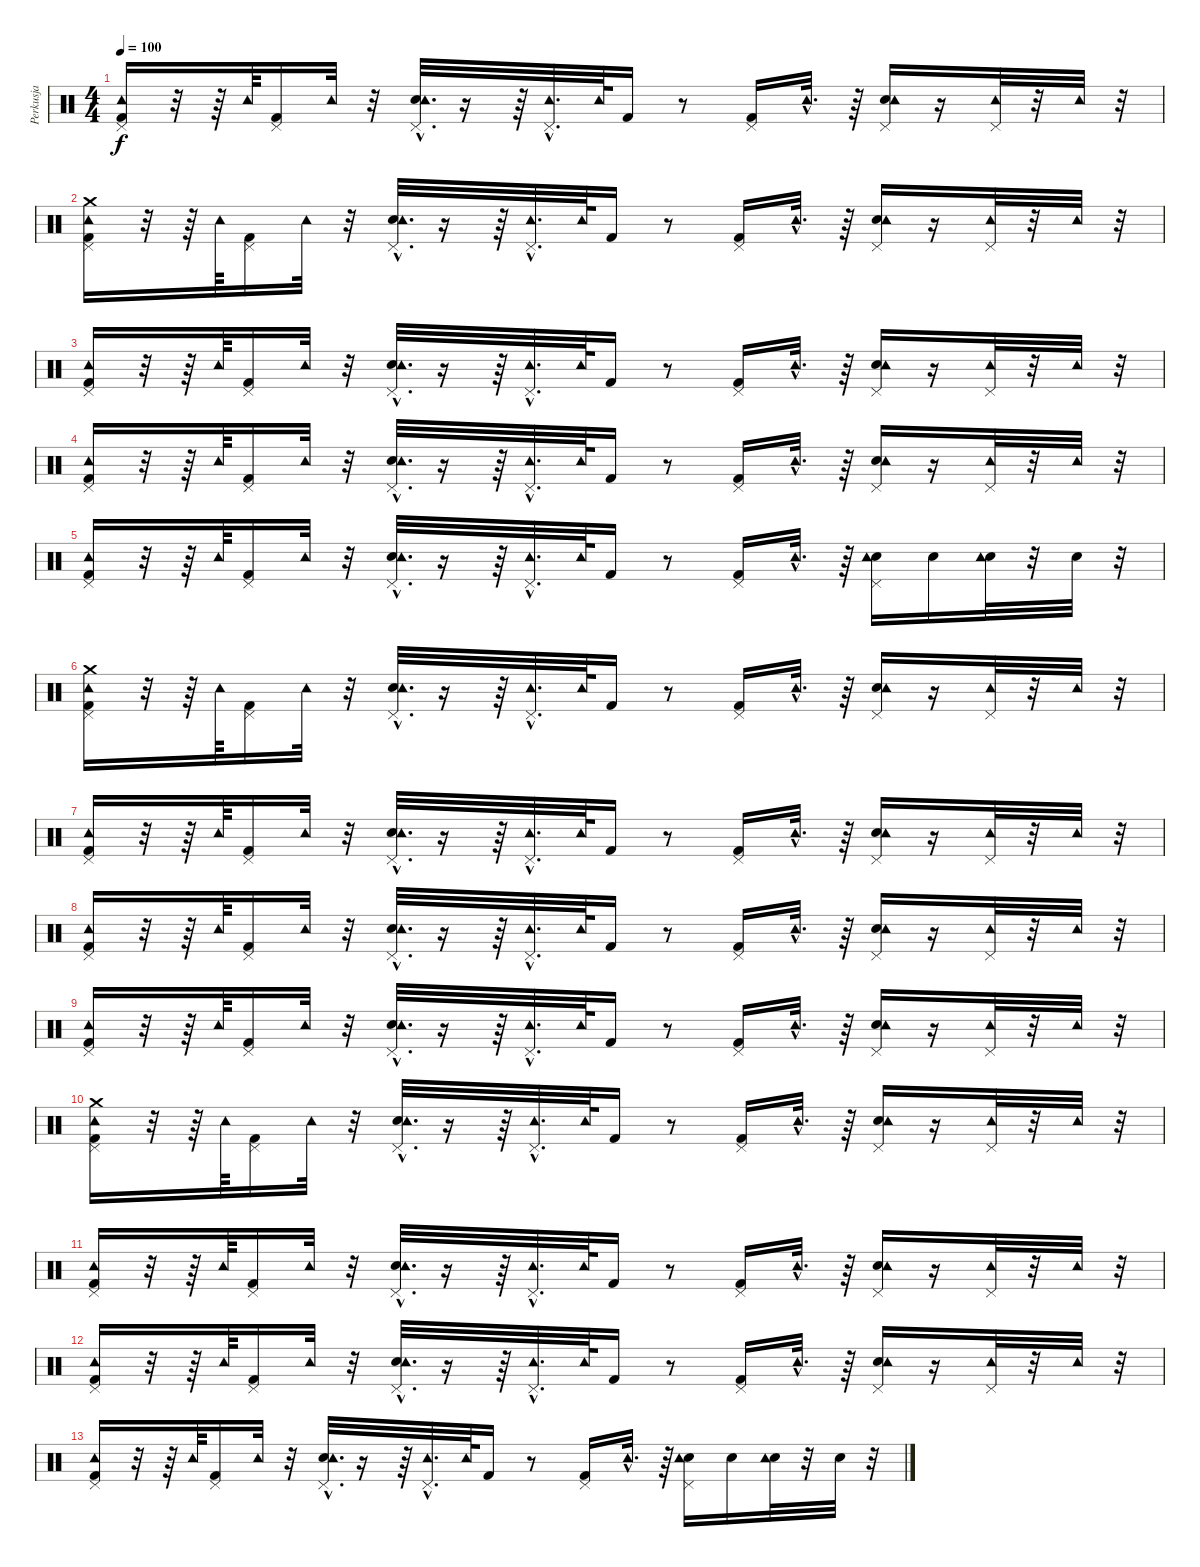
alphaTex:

\track ("Perkusja" "Perkusja") {instrument percussion}
\staff {score}
\articulation defaults
\ts (4 4)
\tempo 100
\clef neutral
\ks c
("Tambourine (hit)" "Pedal Hi-Hat (hit)" "Kick (hit) 2").16{dy f} r.32 r.64 "Tambourine (hit)".64 ("Kick (hit) 2" "Pedal Hi-Hat (hit)").16 "Tambourine (hit)".32 r.32 ("Electric Snare (hit)"{hac} "Pedal Hi-Hat (hit)"{hac} "Tambourine (hit)"{hac}).32{d} r.16 r.64 ("Pedal Hi-Hat (hit)"{hac} "Tambourine (hit)"{hac}).32{d} "Tambourine (hit)".64 "Kick (hit) 2".16 r.8 ("Kick (hit) 2" "Pedal Hi-Hat (hit)").16 "Tambourine (hit)"{hac}.32{d} r.64 ("Electric Snare (hit)" "Pedal Hi-Hat (hit)" "Tambourine (hit)").16 r.16 ("Pedal Hi-Hat (hit)" "Tambourine (hit)").32 r.32 "Tambourine (hit)".32 r.32 |
("Tambourine (hit)" "Pedal Hi-Hat (hit)" "Kick (hit) 2" "Crash medium (hit)").16 r.32 r.64 "Tambourine (hit)".64 ("Kick (hit) 2" "Pedal Hi-Hat (hit)").16 "Tambourine (hit)".32 r.32 ("Electric Snare (hit)"{hac} "Pedal Hi-Hat (hit)"{hac} "Tambourine (hit)"{hac}).32{d} r.16 r.64 ("Pedal Hi-Hat (hit)"{hac} "Tambourine (hit)"{hac}).32{d} "Tambourine (hit)".64 "Kick (hit) 2".16 r.8 ("Kick (hit) 2" "Pedal Hi-Hat (hit)").16 "Tambourine (hit)"{hac}.32{d} r.64 ("Electric Snare (hit)" "Pedal Hi-Hat (hit)" "Tambourine (hit)").16 r.16 ("Pedal Hi-Hat (hit)" "Tambourine (hit)").32 r.32 "Tambourine (hit)".32 r.32 |
("Tambourine (hit)" "Pedal Hi-Hat (hit)" "Kick (hit) 2").16 r.32 r.64 "Tambourine (hit)".64 ("Kick (hit) 2" "Pedal Hi-Hat (hit)").16 "Tambourine (hit)".32 r.32 ("Electric Snare (hit)"{hac} "Pedal Hi-Hat (hit)"{hac} "Tambourine (hit)"{hac}).32{d} r.16 r.64 ("Pedal Hi-Hat (hit)"{hac} "Tambourine (hit)"{hac}).32{d} "Tambourine (hit)".64 "Kick (hit) 2".16 r.8 ("Kick (hit) 2" "Pedal Hi-Hat (hit)").16 "Tambourine (hit)"{hac}.32{d} r.64 ("Electric Snare (hit)" "Pedal Hi-Hat (hit)" "Tambourine (hit)").16 r.16 ("Pedal Hi-Hat (hit)" "Tambourine (hit)").32 r.32 "Tambourine (hit)".32 r.32 |
("Tambourine (hit)" "Pedal Hi-Hat (hit)" "Kick (hit) 2").16 r.32 r.64 "Tambourine (hit)".64 ("Kick (hit) 2" "Pedal Hi-Hat (hit)").16 "Tambourine (hit)".32 r.32 ("Electric Snare (hit)"{hac} "Pedal Hi-Hat (hit)"{hac} "Tambourine (hit)"{hac}).32{d} r.16 r.64 ("Pedal Hi-Hat (hit)"{hac} "Tambourine (hit)"{hac}).32{d} "Tambourine (hit)".64 "Kick (hit) 2".16 r.8 ("Kick (hit) 2" "Pedal Hi-Hat (hit)").16 "Tambourine (hit)"{hac}.32{d} r.64 ("Electric Snare (hit)" "Pedal Hi-Hat (hit)" "Tambourine (hit)").16 r.16 ("Pedal Hi-Hat (hit)" "Tambourine (hit)").32 r.32 "Tambourine (hit)".32 r.32 |
("Tambourine (hit)" "Pedal Hi-Hat (hit)" "Kick (hit) 2").16 r.32 r.64 "Tambourine (hit)".64 ("Kick (hit) 2" "Pedal Hi-Hat (hit)").16 "Tambourine (hit)".32 r.32 ("Electric Snare (hit)"{hac} "Pedal Hi-Hat (hit)"{hac} "Tambourine (hit)"{hac}).32{d} r.16 r.64 ("Pedal Hi-Hat (hit)"{hac} "Tambourine (hit)"{hac}).32{d} "Tambourine (hit)".64 "Kick (hit) 2".16 r.8 ("Kick (hit) 2" "Pedal Hi-Hat (hit)").16 "Tambourine (hit)"{hac}.32{d} r.64 ("Electric Snare (hit)" "Pedal Hi-Hat (hit)" "Tambourine (hit)").16 "Electric Snare (hit)".16 ("Electric Snare (hit)" "Tambourine (hit)").32 r.32 "Electric Snare (hit)".32 r.32 |
("Tambourine (hit)" "Pedal Hi-Hat (hit)" "Kick (hit) 2" "Crash medium (hit)").16 r.32 r.64 "Tambourine (hit)".64 ("Kick (hit) 2" "Pedal Hi-Hat (hit)").16 "Tambourine (hit)".32 r.32 ("Electric Snare (hit)"{hac} "Pedal Hi-Hat (hit)"{hac} "Tambourine (hit)"{hac}).32{d} r.16 r.64 ("Pedal Hi-Hat (hit)"{hac} "Tambourine (hit)"{hac}).32{d} "Tambourine (hit)".64 "Kick (hit) 2".16 r.8 ("Kick (hit) 2" "Pedal Hi-Hat (hit)").16 "Tambourine (hit)"{hac}.32{d} r.64 ("Electric Snare (hit)" "Pedal Hi-Hat (hit)" "Tambourine (hit)").16 r.16 ("Pedal Hi-Hat (hit)" "Tambourine (hit)").32 r.32 "Tambourine (hit)".32 r.32 |
("Tambourine (hit)" "Pedal Hi-Hat (hit)" "Kick (hit) 2").16 r.32 r.64 "Tambourine (hit)".64 ("Kick (hit) 2" "Pedal Hi-Hat (hit)").16 "Tambourine (hit)".32 r.32 ("Electric Snare (hit)"{hac} "Pedal Hi-Hat (hit)"{hac} "Tambourine (hit)"{hac}).32{d} r.16 r.64 ("Pedal Hi-Hat (hit)"{hac} "Tambourine (hit)"{hac}).32{d} "Tambourine (hit)".64 "Kick (hit) 2".16 r.8 ("Kick (hit) 2" "Pedal Hi-Hat (hit)").16 "Tambourine (hit)"{hac}.32{d} r.64 ("Electric Snare (hit)" "Pedal Hi-Hat (hit)" "Tambourine (hit)").16 r.16 ("Pedal Hi-Hat (hit)" "Tambourine (hit)").32 r.32 "Tambourine (hit)".32 r.32 |
("Tambourine (hit)" "Pedal Hi-Hat (hit)" "Kick (hit) 2").16 r.32 r.64 "Tambourine (hit)".64 ("Kick (hit) 2" "Pedal Hi-Hat (hit)").16 "Tambourine (hit)".32 r.32 ("Electric Snare (hit)"{hac} "Pedal Hi-Hat (hit)"{hac} "Tambourine (hit)"{hac}).32{d} r.16 r.64 ("Pedal Hi-Hat (hit)"{hac} "Tambourine (hit)"{hac}).32{d} "Tambourine (hit)".64 "Kick (hit) 2".16 r.8 ("Kick (hit) 2" "Pedal Hi-Hat (hit)").16 "Tambourine (hit)"{hac}.32{d} r.64 ("Electric Snare (hit)" "Pedal Hi-Hat (hit)" "Tambourine (hit)").16 r.16 ("Pedal Hi-Hat (hit)" "Tambourine (hit)").32 r.32 "Tambourine (hit)".32 r.32 |
("Tambourine (hit)" "Pedal Hi-Hat (hit)" "Kick (hit) 2").16 r.32 r.64 "Tambourine (hit)".64 ("Kick (hit) 2" "Pedal Hi-Hat (hit)").16 "Tambourine (hit)".32 r.32 ("Electric Snare (hit)"{hac} "Pedal Hi-Hat (hit)"{hac} "Tambourine (hit)"{hac}).32{d} r.16 r.64 ("Pedal Hi-Hat (hit)"{hac} "Tambourine (hit)"{hac}).32{d} "Tambourine (hit)".64 "Kick (hit) 2".16 r.8 ("Kick (hit) 2" "Pedal Hi-Hat (hit)").16 "Tambourine (hit)"{hac}.32{d} r.64 ("Electric Snare (hit)" "Pedal Hi-Hat (hit)" "Tambourine (hit)").16 r.16 ("Pedal Hi-Hat (hit)" "Tambourine (hit)").32 r.32 "Tambourine (hit)".32 r.32 |
("Tambourine (hit)" "Pedal Hi-Hat (hit)" "Kick (hit) 2" "Crash medium (hit)").16 r.32 r.64 "Tambourine (hit)".64 ("Kick (hit) 2" "Pedal Hi-Hat (hit)").16 "Tambourine (hit)".32 r.32 ("Electric Snare (hit)"{hac} "Pedal Hi-Hat (hit)"{hac} "Tambourine (hit)"{hac}).32{d} r.16 r.64 ("Pedal Hi-Hat (hit)"{hac} "Tambourine (hit)"{hac}).32{d} "Tambourine (hit)".64 "Kick (hit) 2".16 r.8 ("Kick (hit) 2" "Pedal Hi-Hat (hit)").16 "Tambourine (hit)"{hac}.32{d} r.64 ("Electric Snare (hit)" "Pedal Hi-Hat (hit)" "Tambourine (hit)").16 r.16 ("Pedal Hi-Hat (hit)" "Tambourine (hit)").32 r.32 "Tambourine (hit)".32 r.32 |
("Tambourine (hit)" "Pedal Hi-Hat (hit)" "Kick (hit) 2").16 r.32 r.64 "Tambourine (hit)".64 ("Kick (hit) 2" "Pedal Hi-Hat (hit)").16 "Tambourine (hit)".32 r.32 ("Electric Snare (hit)"{hac} "Pedal Hi-Hat (hit)"{hac} "Tambourine (hit)"{hac}).32{d} r.16 r.64 ("Pedal Hi-Hat (hit)"{hac} "Tambourine (hit)"{hac}).32{d} "Tambourine (hit)".64 "Kick (hit) 2".16 r.8 ("Kick (hit) 2" "Pedal Hi-Hat (hit)").16 "Tambourine (hit)"{hac}.32{d} r.64 ("Electric Snare (hit)" "Pedal Hi-Hat (hit)" "Tambourine (hit)").16 r.16 ("Pedal Hi-Hat (hit)" "Tambourine (hit)").32 r.32 "Tambourine (hit)".32 r.32 |
("Tambourine (hit)" "Pedal Hi-Hat (hit)" "Kick (hit) 2").16 r.32 r.64 "Tambourine (hit)".64 ("Kick (hit) 2" "Pedal Hi-Hat (hit)").16 "Tambourine (hit)".32 r.32 ("Electric Snare (hit)"{hac} "Pedal Hi-Hat (hit)"{hac} "Tambourine (hit)"{hac}).32{d} r.16 r.64 ("Pedal Hi-Hat (hit)"{hac} "Tambourine (hit)"{hac}).32{d} "Tambourine (hit)".64 "Kick (hit) 2".16 r.8 ("Kick (hit) 2" "Pedal Hi-Hat (hit)").16 "Tambourine (hit)"{hac}.32{d} r.64 ("Electric Snare (hit)" "Pedal Hi-Hat (hit)" "Tambourine (hit)").16 r.16 ("Pedal Hi-Hat (hit)" "Tambourine (hit)").32 r.32 "Tambourine (hit)".32 r.32 |
("Tambourine (hit)" "Pedal Hi-Hat (hit)" "Kick (hit) 2").16 r.32 r.64 "Tambourine (hit)".64 ("Kick (hit) 2" "Pedal Hi-Hat (hit)").16 "Tambourine (hit)".32 r.32 ("Electric Snare (hit)"{hac} "Pedal Hi-Hat (hit)"{hac} "Tambourine (hit)"{hac}).32{d} r.16 r.64 ("Pedal Hi-Hat (hit)"{hac} "Tambourine (hit)"{hac}).32{d} "Tambourine (hit)".64 "Kick (hit) 2".16 r.8 ("Kick (hit) 2" "Pedal Hi-Hat (hit)").16 "Tambourine (hit)"{hac}.32{d} r.64 ("Electric Snare (hit)" "Pedal Hi-Hat (hit)" "Tambourine (hit)").16 "Electric Snare (hit)".16 ("Electric Snare (hit)" "Tambourine (hit)").32 r.32 "Electric Snare (hit)".32 r.32
